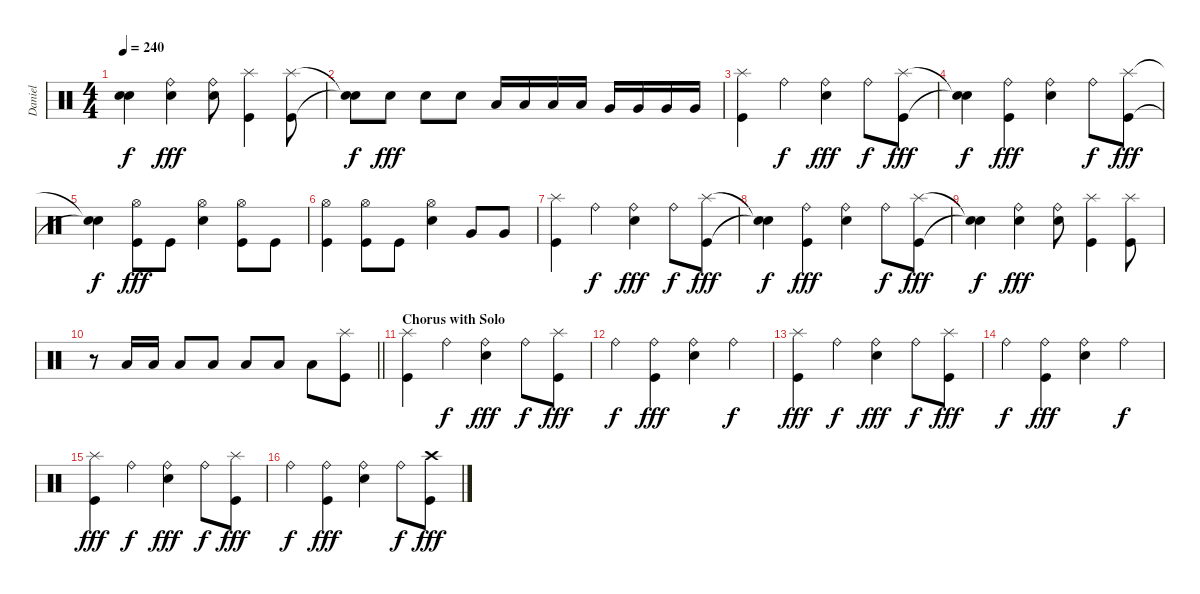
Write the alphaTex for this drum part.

\track ("Daniel" "Daniel") {instrument percussion}
\staff {score}
\articulation defaults
\ts (4 4)
\tempo 240
\clef neutral
\ks c
("Snare (hit)"{t} "Snare (hit)"{t}).4{dy f} ("Electric Snare (hit)" "Ride (bell)").4{dy fff} ("Electric Snare (hit)" "Ride (bell)").8 ("Kick (hit)" "Splash (hit)").4 ("Kick (hit)" "Splash (hit)").8 |
("Snare (hit)"{t} "Snare (hit)"{t}).8{dy f} "Electric Snare (hit)".8{dy fff} "Electric Snare (hit)".8 "Electric Snare (hit)".8 "Low Tom (hit)".16 "Low Tom (hit)".16 "Low Tom (hit)".16 "Low Tom (hit)".16 "Very Low Tom (hit)".16 "Very Low Tom (hit)".16 "Very Low Tom (hit)".16 "Very Low Tom (hit)".16 |
("Kick (hit)" "Splash (hit)").4 "Ride (bell)".4{dy f} ("Electric Snare (hit)" "Ride (bell)").4{dy fff} "Ride (bell)".8{dy f} ("Kick (hit)" "Splash (hit)").8{dy fff} |
("Snare (hit)"{t} "Snare (hit)"{t}).4{dy f} ("Kick (hit)" "Ride (bell)").4{dy fff} ("Electric Snare (hit)" "Ride (bell)").4 "Ride (bell)".8{dy f} ("Kick (hit)" "Splash (hit)").8{dy fff} |
("Snare (hit)"{t} "Snare (hit)"{t}).4{dy f} ("Kick (hit)" "Hi-Hat (open)").8{dy fff} "Kick (hit)".8 ("Electric Snare (hit)" "Hi-Hat (open)").4 ("Kick (hit)" "Hi-Hat (open)").8 "Kick (hit)".8 |
("Kick (hit)" "Hi-Hat (open)").4 ("Kick (hit)" "Hi-Hat (open)").8 "Kick (hit)".8 ("Electric Snare (hit)" "Hi-Hat (open)").4 "Very Low Tom (hit)".8 "Very Low Tom (hit)".8 |
("Kick (hit)" "Splash (hit)").4 "Ride (bell)".4{dy f} ("Electric Snare (hit)" "Ride (bell)").4{dy fff} "Ride (bell)".8{dy f} ("Kick (hit)" "Splash (hit)").8{dy fff} |
("Snare (hit)"{t} "Snare (hit)"{t}).4{dy f} ("Kick (hit)" "Ride (bell)").4{dy fff} ("Electric Snare (hit)" "Ride (bell)").4 "Ride (bell)".8{dy f} ("Kick (hit)" "Splash (hit)").8{dy fff} |
("Snare (hit)"{t} "Snare (hit)"{t}).4{dy f} ("Electric Snare (hit)" "Ride (bell)").4{dy fff} ("Electric Snare (hit)" "Ride (bell)").8 ("Kick (hit)" "Splash (hit)").4 ("Kick (hit)" "Splash (hit)").8 |
\barLineRight lightlight
r.8 "Low Tom (hit)".16 "Low Tom (hit)".16 "Low Tom (hit)".8 "Low Tom (hit)".8 "Low Tom (hit)".8 "Low Floor Tom (hit)".8 "Low Floor Tom (hit)".8 ("Kick (hit)" "Splash (hit)").8 |
\section ("" "Chorus with Solo")
("Kick (hit)" "Splash (hit)").4 "Ride (bell)".4{dy f} ("Electric Snare (hit)" "Ride (bell)").4{dy fff} "Ride (bell)".8{dy f} ("Kick (hit)" "Splash (hit)").8{dy fff} |
"Ride (bell)".4{dy f} ("Kick (hit)" "Ride (bell)").4{dy fff} ("Electric Snare (hit)" "Ride (bell)").4 "Ride (bell)".4{dy f} |
("Kick (hit)" "Splash (hit)").4{dy fff} "Ride (bell)".4{dy f} ("Electric Snare (hit)" "Ride (bell)").4{dy fff} "Ride (bell)".8{dy f} ("Kick (hit)" "Splash (hit)").8{dy fff} |
"Ride (bell)".4{dy f} ("Kick (hit)" "Ride (bell)").4{dy fff} ("Electric Snare (hit)" "Ride (bell)").4 "Ride (bell)".4{dy f} |
("Kick (hit)" "Splash (hit)").4{dy fff} "Ride (bell)".4{dy f} ("Electric Snare (hit)" "Ride (bell)").4{dy fff} "Ride (bell)".8{dy f} ("Kick (hit)" "Splash (hit)").8{dy fff} |
"Ride (bell)".4{dy f} ("Kick (hit)" "Ride (bell)").4{dy fff} ("Electric Snare (hit)" "Ride (bell)").4 "Ride (bell)".8{dy f} ("Kick (hit)" "Crash high (hit)").8{dy fff}
